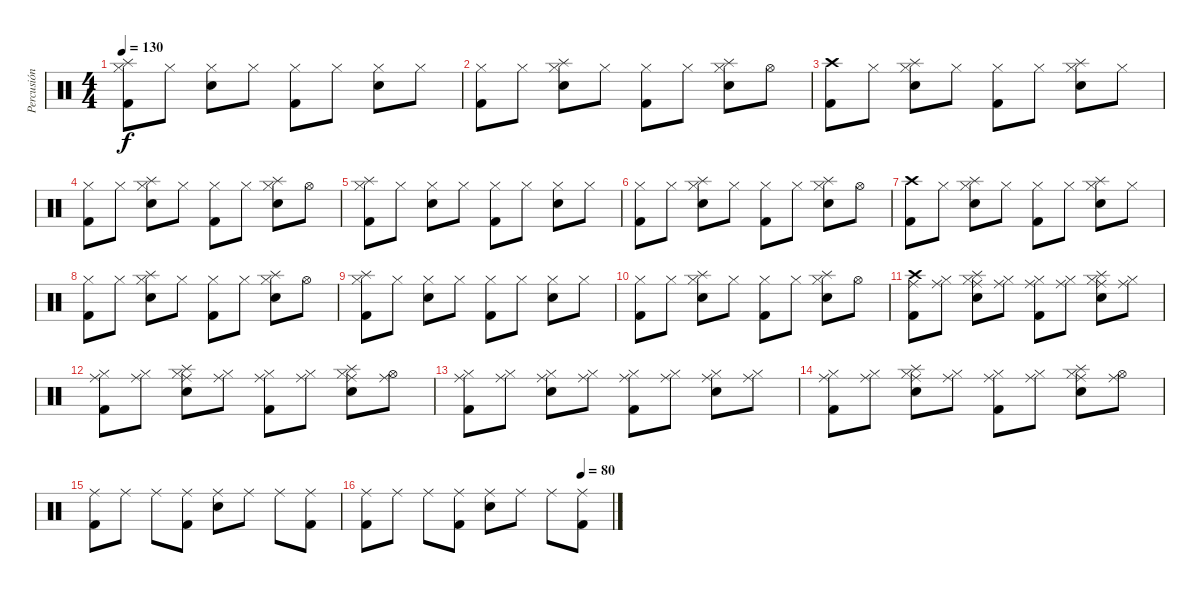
\track ("Percusión" "Percusión") {instrument percussion}
\staff {score}
\articulation defaults
\ts (4 4)
\tempo 130
\clef neutral
\ks c
("Hi-Hat (closed)" "Kick (hit) 2" "Splash (hit)").8{dy f} "Hi-Hat (closed)".8 ("Hi-Hat (closed)" "Snare (hit) 2").8 "Hi-Hat (closed)".8 ("Hi-Hat (closed)" "Kick (hit) 2").8 "Hi-Hat (closed)".8 ("Hi-Hat (closed)" "Snare (hit) 2").8 "Hi-Hat (closed)".8 |
("Hi-Hat (closed)" "Kick (hit) 2").8 "Hi-Hat (closed)".8 ("Hi-Hat (closed)" "Snare (hit) 2" "Splash (hit)").8 "Hi-Hat (closed)".8 ("Hi-Hat (closed)" "Kick (hit) 2").8 "Hi-Hat (closed)".8 ("Hi-Hat (closed)" "Snare (hit) 2" "Splash (hit)").8 "Hi-Hat (open)".8 |
("Crash high (hit)" "Kick (hit) 2").8 "Hi-Hat (closed)".8 ("Hi-Hat (closed)" "Snare (hit) 2" "Splash (hit)").8 "Hi-Hat (closed)".8 ("Hi-Hat (closed)" "Kick (hit) 2").8 "Hi-Hat (closed)".8 ("Hi-Hat (closed)" "Snare (hit) 2" "Splash (hit)").8 "Hi-Hat (closed)".8 |
("Hi-Hat (closed)" "Kick (hit) 2").8 "Hi-Hat (closed)".8 ("Hi-Hat (closed)" "Snare (hit) 2" "Splash (hit)").8 "Hi-Hat (closed)".8 ("Hi-Hat (closed)" "Kick (hit) 2").8 "Hi-Hat (closed)".8 ("Hi-Hat (closed)" "Snare (hit) 2" "Splash (hit)").8 "Hi-Hat (open)".8 |
("Hi-Hat (closed)" "Kick (hit) 2" "Splash (hit)").8 "Hi-Hat (closed)".8 ("Hi-Hat (closed)" "Snare (hit) 2").8 "Hi-Hat (closed)".8 ("Hi-Hat (closed)" "Kick (hit) 2").8 "Hi-Hat (closed)".8 ("Hi-Hat (closed)" "Snare (hit) 2").8 "Hi-Hat (closed)".8 |
("Hi-Hat (closed)" "Kick (hit) 2").8 "Hi-Hat (closed)".8 ("Hi-Hat (closed)" "Snare (hit) 2" "Splash (hit)").8 "Hi-Hat (closed)".8 ("Hi-Hat (closed)" "Kick (hit) 2").8 "Hi-Hat (closed)".8 ("Hi-Hat (closed)" "Snare (hit) 2" "Splash (hit)").8 "Hi-Hat (open)".8 |
("Crash high (hit)" "Kick (hit) 2").8 "Hi-Hat (closed)".8 ("Hi-Hat (closed)" "Snare (hit) 2" "Splash (hit)").8 "Hi-Hat (closed)".8 ("Hi-Hat (closed)" "Kick (hit) 2").8 "Hi-Hat (closed)".8 ("Hi-Hat (closed)" "Snare (hit) 2" "Splash (hit)").8 "Hi-Hat (closed)".8 |
("Hi-Hat (closed)" "Kick (hit) 2").8 "Hi-Hat (closed)".8 ("Hi-Hat (closed)" "Snare (hit) 2" "Splash (hit)").8 "Hi-Hat (closed)".8 ("Hi-Hat (closed)" "Kick (hit) 2").8 "Hi-Hat (closed)".8 ("Hi-Hat (closed)" "Snare (hit) 2" "Splash (hit)").8 "Hi-Hat (open)".8 |
("Hi-Hat (closed)" "Kick (hit) 2" "Splash (hit)").8 "Hi-Hat (closed)".8 ("Hi-Hat (closed)" "Snare (hit) 2").8 "Hi-Hat (closed)".8 ("Hi-Hat (closed)" "Kick (hit) 2").8 "Hi-Hat (closed)".8 ("Hi-Hat (closed)" "Snare (hit) 2").8 "Hi-Hat (closed)".8 |
("Hi-Hat (closed)" "Kick (hit) 2").8 "Hi-Hat (closed)".8 ("Hi-Hat (closed)" "Snare (hit) 2" "Splash (hit)").8 "Hi-Hat (closed)".8 ("Hi-Hat (closed)" "Kick (hit) 2").8 "Hi-Hat (closed)".8 ("Hi-Hat (closed)" "Snare (hit) 2" "Splash (hit)").8 "Hi-Hat (open)".8 |
("Crash high (hit)" "Kick (hit) 2" "Ride (middle)").8 ("Hi-Hat (closed)" "Ride (middle)").8 ("Hi-Hat (closed)" "Snare (hit) 2" "Splash (hit)" "Ride (middle)").8 ("Hi-Hat (closed)" "Ride (middle)").8 ("Hi-Hat (closed)" "Kick (hit) 2" "Ride (middle)").8 ("Hi-Hat (closed)" "Ride (middle)").8 ("Hi-Hat (closed)" "Snare (hit) 2" "Splash (hit)" "Ride (middle)").8 ("Hi-Hat (closed)" "Ride (middle)").8 |
("Hi-Hat (closed)" "Kick (hit) 2" "Ride (middle)").8 ("Hi-Hat (closed)" "Ride (middle)").8 ("Hi-Hat (closed)" "Snare (hit) 2" "Splash (hit)" "Ride (middle)").8 ("Hi-Hat (closed)" "Ride (middle)").8 ("Hi-Hat (closed)" "Kick (hit) 2" "Ride (middle)").8 ("Hi-Hat (closed)" "Ride (middle)").8 ("Hi-Hat (closed)" "Snare (hit) 2" "Splash (hit)" "Ride (middle)").8 ("Hi-Hat (open)" "Ride (middle)").8 |
("Hi-Hat (closed)" "Kick (hit) 2" "Ride (middle)").8 ("Hi-Hat (closed)" "Ride (middle)").8 ("Hi-Hat (closed)" "Snare (hit) 2" "Ride (middle)").8 ("Hi-Hat (closed)" "Ride (middle)").8 ("Hi-Hat (closed)" "Kick (hit) 2" "Ride (middle)").8 ("Hi-Hat (closed)" "Ride (middle)").8 ("Hi-Hat (closed)" "Snare (hit) 2" "Ride (middle)").8 ("Hi-Hat (closed)" "Ride (middle)").8 |
("Hi-Hat (closed)" "Kick (hit) 2" "Ride (middle)").8 ("Hi-Hat (closed)" "Ride (middle)").8 ("Hi-Hat (closed)" "Snare (hit) 2" "Splash (hit)" "Ride (middle)").8 ("Hi-Hat (closed)" "Ride (middle)").8 ("Hi-Hat (closed)" "Kick (hit) 2" "Ride (middle)").8 ("Hi-Hat (closed)" "Ride (middle)").8 ("Hi-Hat (closed)" "Snare (hit) 2" "Splash (hit)" "Ride (middle)").8 ("Hi-Hat (open)" "Ride (middle)").8 |
("Kick (hit) 2" "Ride (middle)").8 "Ride (middle)".8 "Ride (middle)".8 ("Kick (hit) 2" "Ride (middle)").8 ("Snare (hit) 2" "Ride (middle)").8 "Ride (middle)".8 "Ride (middle)".8 ("Kick (hit) 2" "Ride (middle)").8 |
\tempo (80 0.875)
("Kick (hit) 2" "Ride (middle)").8 "Ride (middle)".8 "Ride (middle)".8 ("Kick (hit) 2" "Ride (middle)").8 ("Snare (hit) 2" "Ride (middle)").8 "Ride (middle)".8 "Ride (middle)".8 ("Kick (hit) 2" "Ride (middle)").8
